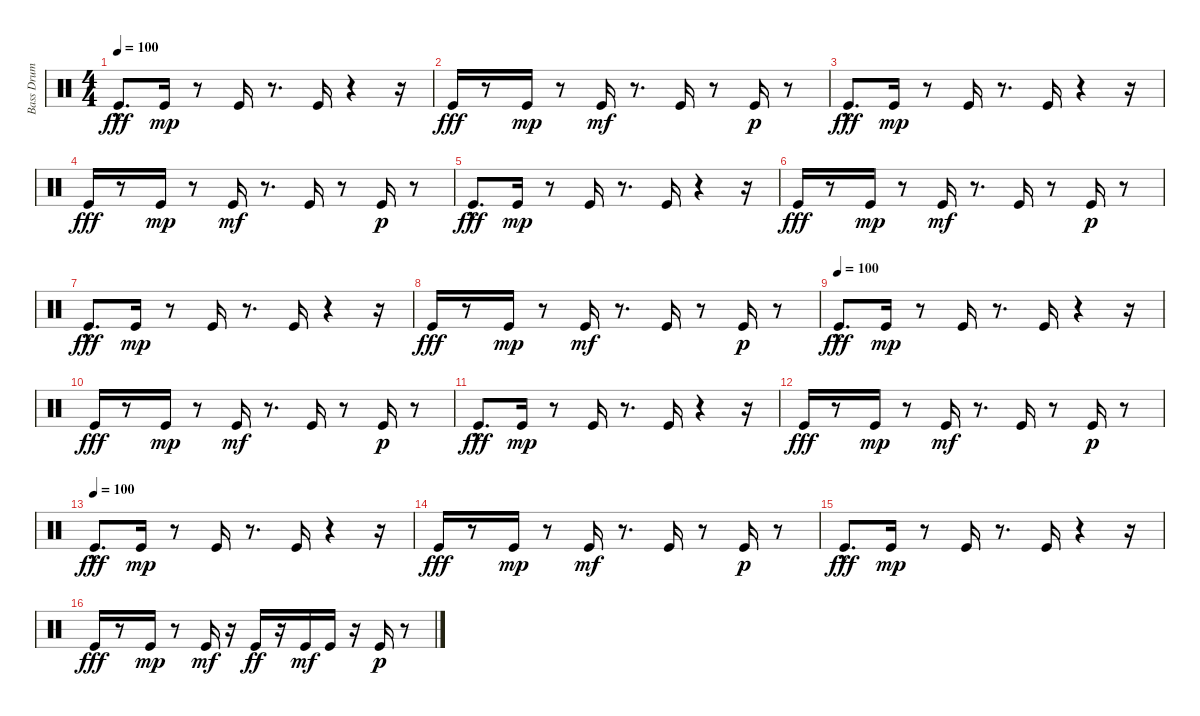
\track ("Bass Drum" "Bass Drum") {instrument percussion}
\staff {score}
\articulation defaults
\ts (4 4)
\tempo 100
\clef neutral
\ks c "Kick (hit)"{hac}.8{d dy fff} "Kick (hit)".16{dy mp}
r.8 "Kick (hit)".16 r.8{d} "Kick (hit)".16 r.4 r.16 |
"Kick (hit)".16{dy fff} r.8 "Kick (hit)".16{dy mp} r.8 "Kick (hit)".16{dy mf} r.8{d} "Kick (hit)".16 r.8 "Kick (hit)".16{dy p} r.8 |
"Kick (hit)"{hac}.8{d dy fff} "Kick (hit)".16{dy mp} r.8 "Kick (hit)".16 r.8{d} "Kick (hit)".16 r.4 r.16 |
"Kick (hit)".16{dy fff} r.8 "Kick (hit)".16{dy mp} r.8 "Kick (hit)".16{dy mf} r.8{d} "Kick (hit)".16 r.8 "Kick (hit)".16{dy p} r.8 |
"Kick (hit)"{hac}.8{d dy fff} "Kick (hit)".16{dy mp} r.8 "Kick (hit)".16 r.8{d} "Kick (hit)".16 r.4 r.16 |
"Kick (hit)".16{dy fff} r.8 "Kick (hit)".16{dy mp} r.8 "Kick (hit)".16{dy mf} r.8{d} "Kick (hit)".16 r.8 "Kick (hit)".16{dy p} r.8 |
"Kick (hit)"{hac}.8{d dy fff} "Kick (hit)".16{dy mp} r.8 "Kick (hit)".16 r.8{d} "Kick (hit)".16 r.4 r.16 |
"Kick (hit)".16{dy fff} r.8 "Kick (hit)".16{dy mp} r.8 "Kick (hit)".16{dy mf} r.8{d} "Kick (hit)".16 r.8 "Kick (hit)".16{dy p} r.8 |
\tempo (100)
"Kick (hit)"{hac}.8{d dy fff} "Kick (hit)".16{dy mp} r.8 "Kick (hit)".16 r.8{d} "Kick (hit)".16 r.4 r.16 |
"Kick (hit)".16{dy fff} r.8 "Kick (hit)".16{dy mp} r.8 "Kick (hit)".16{dy mf} r.8{d} "Kick (hit)".16 r.8 "Kick (hit)".16{dy p} r.8 |
"Kick (hit)"{hac}.8{d dy fff} "Kick (hit)".16{dy mp} r.8 "Kick (hit)".16 r.8{d} "Kick (hit)".16 r.4 r.16 |
"Kick (hit)".16{dy fff} r.8 "Kick (hit)".16{dy mp} r.8 "Kick (hit)".16{dy mf} r.8{d} "Kick (hit)".16 r.8 "Kick (hit)".16{dy p} r.8 |
\tempo (100)
"Kick (hit)"{hac}.8{d dy fff} "Kick (hit)".16{dy mp} r.8 "Kick (hit)".16 r.8{d} "Kick (hit)".16 r.4 r.16 |
"Kick (hit)".16{dy fff} r.8 "Kick (hit)".16{dy mp} r.8 "Kick (hit)".16{dy mf} r.8{d} "Kick (hit)".16 r.8 "Kick (hit)".16{dy p} r.8 |
"Kick (hit)"{hac}.8{d dy fff} "Kick (hit)".16{dy mp} r.8 "Kick (hit)".16 r.8{d} "Kick (hit)".16 r.4 r.16 |
"Kick (hit)".16{dy fff} r.8 "Kick (hit)".16{dy mp} r.8 "Kick (hit)".16{dy mf} r.16 "Kick (hit)".16{dy ff} r.16 "Kick (hit)".16{dy mf} "Kick (hit)".16 r.16 "Kick (hit)".16{dy p} r.8
